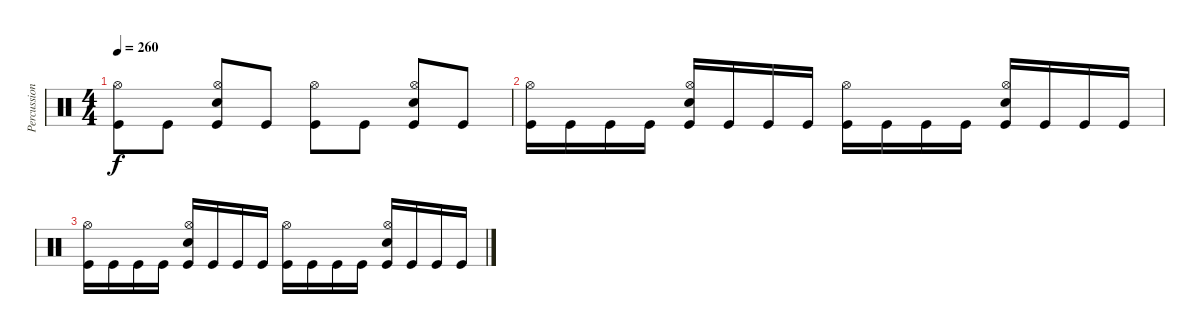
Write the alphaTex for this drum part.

\track ("Percussion" "Percussion") {instrument percussion}
\staff {score}
\articulation defaults
\ts (4 4)
\tempo 260
\clef neutral
\ks c
("Kick (hit)" "Hi-Hat (open)").8{dy f} "Kick (hit)".8 ("Kick (hit)" "Snare (hit) 2" "Hi-Hat (open)").8 "Kick (hit)".8 ("Kick (hit)" "Hi-Hat (open)").8 "Kick (hit)".8 ("Kick (hit)" "Snare (hit) 2" "Hi-Hat (open)").8 "Kick (hit)".8 |
("Kick (hit)" "Hi-Hat (open)").16 "Kick (hit)".16 "Kick (hit)".16 "Kick (hit)".16 ("Kick (hit)" "Snare (hit) 2" "Hi-Hat (open)").16 "Kick (hit)".16 "Kick (hit)".16 "Kick (hit)".16 ("Kick (hit)" "Hi-Hat (open)").16 "Kick (hit)".16 "Kick (hit)".16 "Kick (hit)".16 ("Kick (hit)" "Snare (hit) 2" "Hi-Hat (open)").16 "Kick (hit)".16 "Kick (hit)".16 "Kick (hit)".16 |
("Kick (hit)" "Hi-Hat (open)").16 "Kick (hit)".16 "Kick (hit)".16 "Kick (hit)".16 ("Kick (hit)" "Snare (hit) 2" "Hi-Hat (open)").16 "Kick (hit)".16 "Kick (hit)".16 "Kick (hit)".16 ("Kick (hit)" "Hi-Hat (open)").16 "Kick (hit)".16 "Kick (hit)".16 "Kick (hit)".16 ("Kick (hit)" "Snare (hit) 2" "Hi-Hat (open)").16 "Kick (hit)".16 "Kick (hit)".16 "Kick (hit)".16
